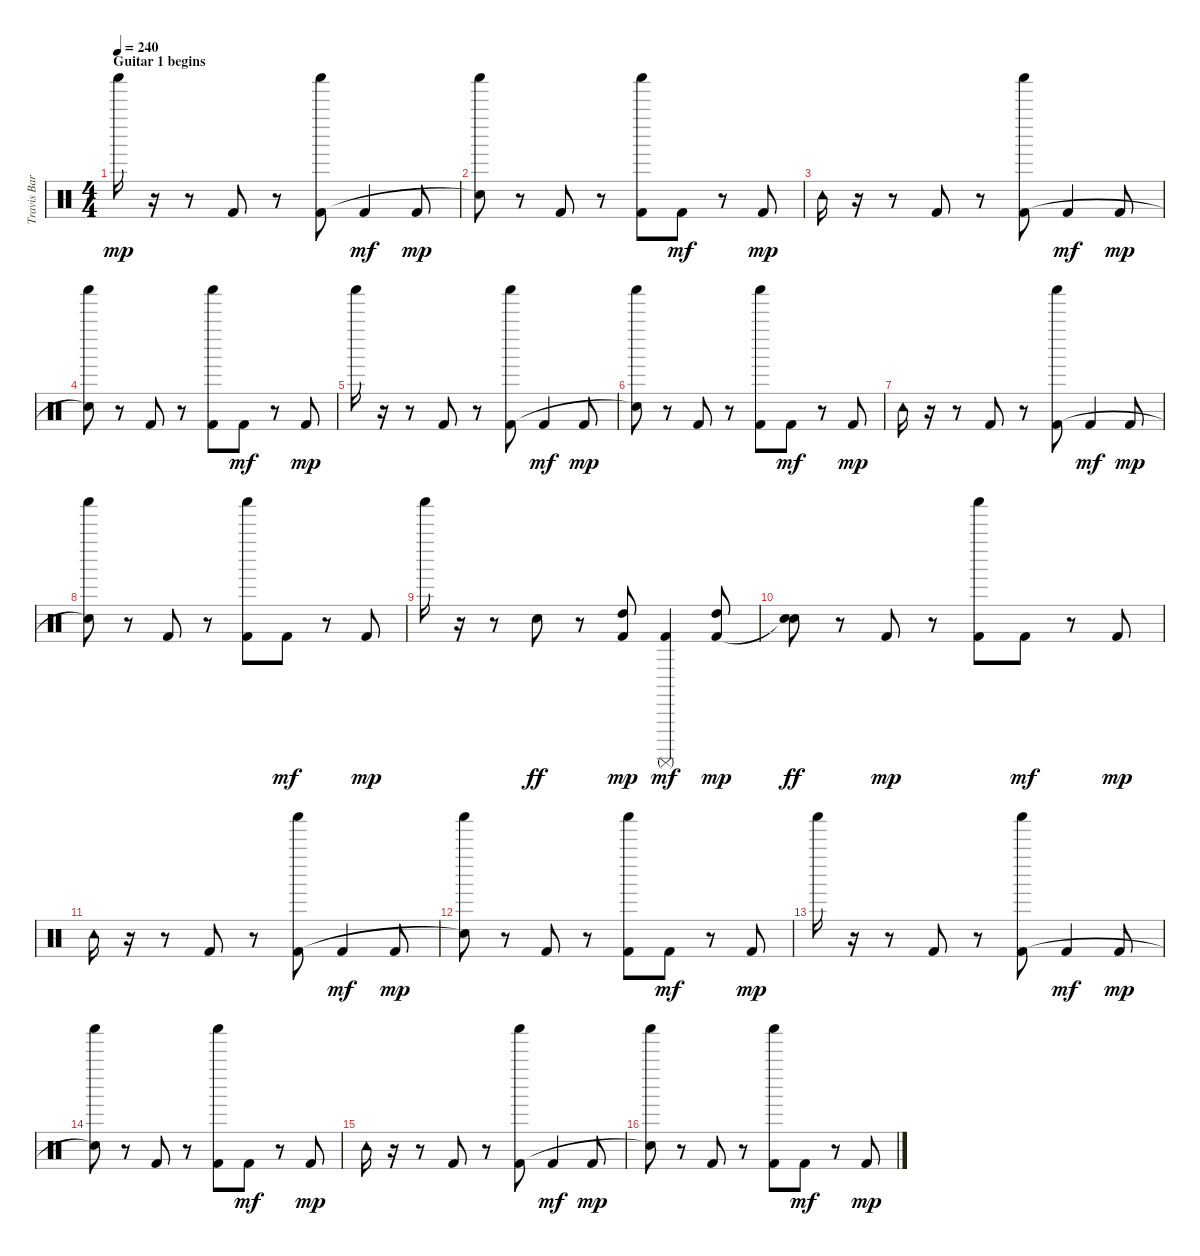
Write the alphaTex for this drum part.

\track ("Travis Barker - Drums" "Travis Bar") {instrument percussion}
\staff {score}
\articulation defaults
\ts (4 4)
\section ("" "Guitar 1 begins")
\tempo 240
\clef neutral
\ks c "Shaker (hit)".16{dy mp}
r.16 r.8 "Kick (hit) 2".8 r.8 ("Shaker (hit)" "Kick (hit) 2").8 "Kick (hit) 2".4{dy mf} "Kick (hit) 2".8{dy mp} |
("Shaker (hit)" "Snare (hit)"{t}).8 r.8 "Kick (hit) 2".8 r.8 ("Shaker (hit)" "Kick (hit) 2").8 "Kick (hit) 2".8{dy mf} r.8 "Kick (hit) 2".8{dy mp} |
"Tambourine (hit)".16 r.16 r.8 "Kick (hit) 2".8 r.8 ("Shaker (hit)" "Kick (hit) 2").8 "Kick (hit) 2".4{dy mf} "Kick (hit) 2".8{dy mp} |
("Shaker (hit)" "Snare (hit)"{t}).8 r.8 "Kick (hit) 2".8 r.8 ("Shaker (hit)" "Kick (hit) 2").8 "Kick (hit) 2".8{dy mf} r.8 "Kick (hit) 2".8{dy mp} |
"Shaker (hit)".16 r.16 r.8 "Kick (hit) 2".8 r.8 ("Shaker (hit)" "Kick (hit) 2").8 "Kick (hit) 2".4{dy mf} "Kick (hit) 2".8{dy mp} |
("Shaker (hit)" "Snare (hit)"{t}).8 r.8 "Kick (hit) 2".8 r.8 ("Shaker (hit)" "Kick (hit) 2").8 "Kick (hit) 2".8{dy mf} r.8 "Kick (hit) 2".8{dy mp} |
"Tambourine (hit)".16 r.16 r.8 "Kick (hit) 2".8 r.8 ("Shaker (hit)" "Kick (hit) 2").8 "Kick (hit) 2".4{dy mf} "Kick (hit) 2".8{dy mp} |
("Shaker (hit)" "Snare (hit)"{t}).8 r.8 "Kick (hit) 2".8 r.8 ("Shaker (hit)" "Kick (hit) 2").8 "Kick (hit) 2".8{dy mf} r.8 "Kick (hit) 2".8{dy mp} |
"Shaker (hit)".16 r.16 r.8 "Electric Snare (hit)".8{dy ff} r.8 ("High Tom (hit)" "Kick (hit) 2").8{dy mp} ("Surdo (mute)" "Kick (hit) 2").4{dy mf} ("High Tom (hit)" "Kick (hit) 2").8{dy mp} |
("Electric Snare (hit)" "Snare (hit)"{t}).8{dy ff} r.8 "Kick (hit) 2".8{dy mp} r.8 ("Shaker (hit)" "Kick (hit) 2").8 "Kick (hit) 2".8{dy mf} r.8 "Kick (hit) 2".8{dy mp} |
"Tambourine (hit)".16 r.16 r.8 "Kick (hit) 2".8 r.8 ("Shaker (hit)" "Kick (hit) 2").8 "Kick (hit) 2".4{dy mf} "Kick (hit) 2".8{dy mp} |
("Shaker (hit)" "Snare (hit)"{t}).8 r.8 "Kick (hit) 2".8 r.8 ("Shaker (hit)" "Kick (hit) 2").8 "Kick (hit) 2".8{dy mf} r.8 "Kick (hit) 2".8{dy mp} |
"Shaker (hit)".16 r.16 r.8 "Kick (hit) 2".8 r.8 ("Shaker (hit)" "Kick (hit) 2").8 "Kick (hit) 2".4{dy mf} "Kick (hit) 2".8{dy mp} |
("Shaker (hit)" "Snare (hit)"{t}).8 r.8 "Kick (hit) 2".8 r.8 ("Shaker (hit)" "Kick (hit) 2").8 "Kick (hit) 2".8{dy mf} r.8 "Kick (hit) 2".8{dy mp} |
"Tambourine (hit)".16 r.16 r.8 "Kick (hit) 2".8 r.8 ("Shaker (hit)" "Kick (hit) 2").8 "Kick (hit) 2".4{dy mf} "Kick (hit) 2".8{dy mp} |
("Shaker (hit)" "Snare (hit)"{t}).8 r.8 "Kick (hit) 2".8 r.8 ("Shaker (hit)" "Kick (hit) 2").8 "Kick (hit) 2".8{dy mf} r.8 "Kick (hit) 2".8{dy mp}
